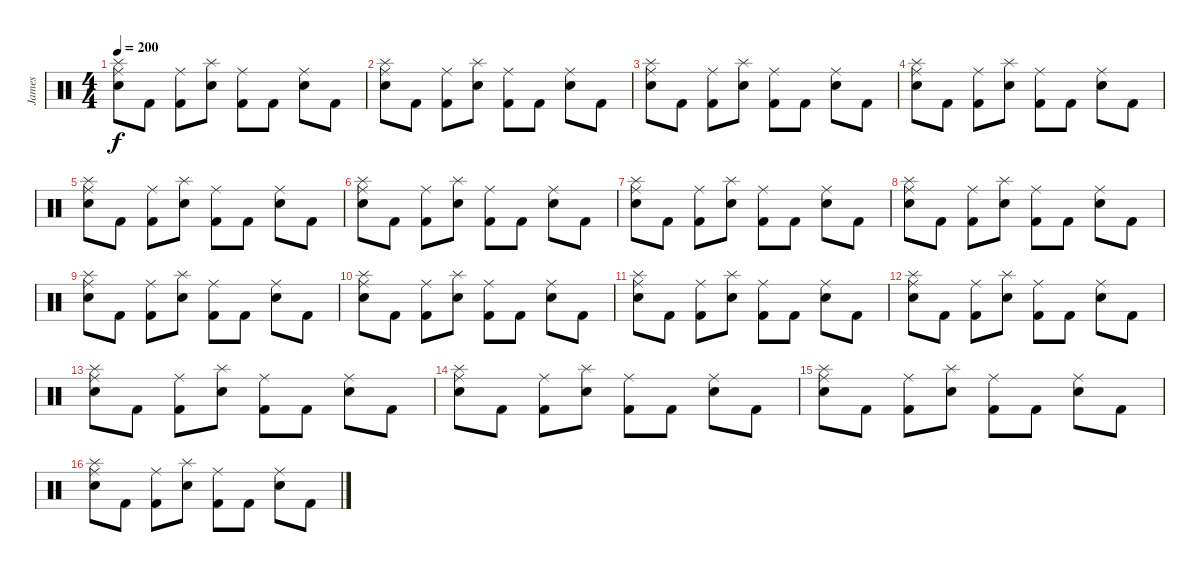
\track ("James" "James") {instrument percussion}
\staff {score}
\articulation defaults
\ts (4 4)
\tempo 200
\clef neutral
\ks c
("Electric Snare (hit)" "Ride (middle)" "Splash (hit)").8{dy f} "Kick (hit) 2".8 ("Kick (hit) 2" "Ride (middle)").8 ("Electric Snare (hit)" "Splash (hit)").8 ("Kick (hit) 2" "Ride (middle)").8 "Kick (hit) 2".8 ("Electric Snare (hit)" "Ride (middle)").8 "Kick (hit) 2".8 |
("Electric Snare (hit)" "Ride (middle)" "Splash (hit)").8 "Kick (hit) 2".8 ("Kick (hit) 2" "Ride (middle)").8 ("Electric Snare (hit)" "Splash (hit)").8 ("Kick (hit) 2" "Ride (middle)").8 "Kick (hit) 2".8 ("Electric Snare (hit)" "Ride (middle)").8 "Kick (hit) 2".8 |
("Electric Snare (hit)" "Ride (middle)" "Splash (hit)").8 "Kick (hit) 2".8 ("Kick (hit) 2" "Ride (middle)").8 ("Electric Snare (hit)" "Splash (hit)").8 ("Kick (hit) 2" "Ride (middle)").8 "Kick (hit) 2".8 ("Electric Snare (hit)" "Ride (middle)").8 "Kick (hit) 2".8 |
("Electric Snare (hit)" "Ride (middle)" "Splash (hit)").8 "Kick (hit) 2".8 ("Kick (hit) 2" "Ride (middle)").8 ("Electric Snare (hit)" "Splash (hit)").8 ("Kick (hit) 2" "Ride (middle)").8 "Kick (hit) 2".8 ("Electric Snare (hit)" "Ride (middle)").8 "Kick (hit) 2".8 |
("Electric Snare (hit)" "Ride (middle)" "Splash (hit)").8 "Kick (hit) 2".8 ("Kick (hit) 2" "Ride (middle)").8 ("Electric Snare (hit)" "Splash (hit)").8 ("Kick (hit) 2" "Ride (middle)").8 "Kick (hit) 2".8 ("Electric Snare (hit)" "Ride (middle)").8 "Kick (hit) 2".8 |
("Electric Snare (hit)" "Ride (middle)" "Splash (hit)").8 "Kick (hit) 2".8 ("Kick (hit) 2" "Ride (middle)").8 ("Electric Snare (hit)" "Splash (hit)").8 ("Kick (hit) 2" "Ride (middle)").8 "Kick (hit) 2".8 ("Electric Snare (hit)" "Ride (middle)").8 "Kick (hit) 2".8 |
("Electric Snare (hit)" "Ride (middle)" "Splash (hit)").8 "Kick (hit) 2".8 ("Kick (hit) 2" "Ride (middle)").8 ("Electric Snare (hit)" "Splash (hit)").8 ("Kick (hit) 2" "Ride (middle)").8 "Kick (hit) 2".8 ("Electric Snare (hit)" "Ride (middle)").8 "Kick (hit) 2".8 |
("Electric Snare (hit)" "Ride (middle)" "Splash (hit)").8 "Kick (hit) 2".8 ("Kick (hit) 2" "Ride (middle)").8 ("Electric Snare (hit)" "Splash (hit)").8 ("Kick (hit) 2" "Ride (middle)").8 "Kick (hit) 2".8 ("Electric Snare (hit)" "Ride (middle)").8 "Kick (hit) 2".8 |
("Electric Snare (hit)" "Ride (middle)" "Splash (hit)").8 "Kick (hit) 2".8 ("Kick (hit) 2" "Ride (middle)").8 ("Electric Snare (hit)" "Splash (hit)").8 ("Kick (hit) 2" "Ride (middle)").8 "Kick (hit) 2".8 ("Electric Snare (hit)" "Ride (middle)").8 "Kick (hit) 2".8 |
("Electric Snare (hit)" "Ride (middle)" "Splash (hit)").8 "Kick (hit) 2".8 ("Kick (hit) 2" "Ride (middle)").8 ("Electric Snare (hit)" "Splash (hit)").8 ("Kick (hit) 2" "Ride (middle)").8 "Kick (hit) 2".8 ("Electric Snare (hit)" "Ride (middle)").8 "Kick (hit) 2".8 |
("Electric Snare (hit)" "Ride (middle)" "Splash (hit)").8 "Kick (hit) 2".8 ("Kick (hit) 2" "Ride (middle)").8 ("Electric Snare (hit)" "Splash (hit)").8 ("Kick (hit) 2" "Ride (middle)").8 "Kick (hit) 2".8 ("Electric Snare (hit)" "Ride (middle)").8 "Kick (hit) 2".8 |
("Electric Snare (hit)" "Ride (middle)" "Splash (hit)").8 "Kick (hit) 2".8 ("Kick (hit) 2" "Ride (middle)").8 ("Electric Snare (hit)" "Splash (hit)").8 ("Kick (hit) 2" "Ride (middle)").8 "Kick (hit) 2".8 ("Electric Snare (hit)" "Ride (middle)").8 "Kick (hit) 2".8 |
("Electric Snare (hit)" "Ride (middle)" "Splash (hit)").8 "Kick (hit) 2".8 ("Kick (hit) 2" "Ride (middle)").8 ("Electric Snare (hit)" "Splash (hit)").8 ("Kick (hit) 2" "Ride (middle)").8 "Kick (hit) 2".8 ("Electric Snare (hit)" "Ride (middle)").8 "Kick (hit) 2".8 |
("Electric Snare (hit)" "Ride (middle)" "Splash (hit)").8 "Kick (hit) 2".8 ("Kick (hit) 2" "Ride (middle)").8 ("Electric Snare (hit)" "Splash (hit)").8 ("Kick (hit) 2" "Ride (middle)").8 "Kick (hit) 2".8 ("Electric Snare (hit)" "Ride (middle)").8 "Kick (hit) 2".8 |
("Electric Snare (hit)" "Ride (middle)" "Splash (hit)").8 "Kick (hit) 2".8 ("Kick (hit) 2" "Ride (middle)").8 ("Electric Snare (hit)" "Splash (hit)").8 ("Kick (hit) 2" "Ride (middle)").8 "Kick (hit) 2".8 ("Electric Snare (hit)" "Ride (middle)").8 "Kick (hit) 2".8 |
("Electric Snare (hit)" "Ride (middle)" "Splash (hit)").8 "Kick (hit) 2".8 ("Kick (hit) 2" "Ride (middle)").8 ("Electric Snare (hit)" "Splash (hit)").8 ("Kick (hit) 2" "Ride (middle)").8 "Kick (hit) 2".8 ("Electric Snare (hit)" "Ride (middle)").8 "Kick (hit) 2".8
